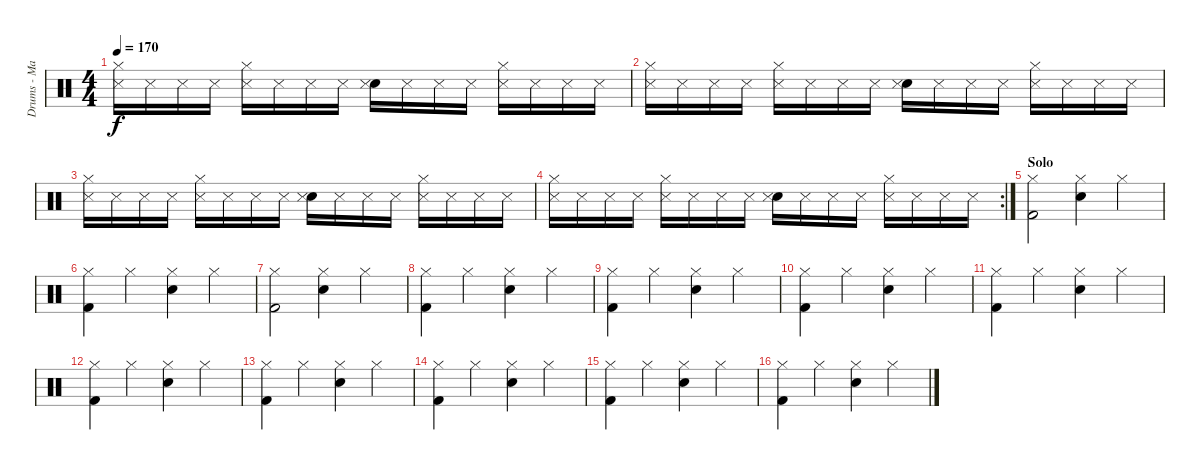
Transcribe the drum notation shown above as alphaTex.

\track ("Drums - Mattias Grahn" "Drums - Ma") {instrument percussion}
\staff {score}
\articulation defaults
\ts (4 4)
\tempo 170
\clef neutral
\ks c
("Hi-Hat (closed)" "Snare (side stick) 3").16{dy f} "Snare (side stick) 3".16 "Snare (side stick) 3".16 "Snare (side stick) 3".16 ("Hi-Hat (closed)" "Snare (side stick) 3").16 "Snare (side stick) 3".16 "Snare (side stick) 3".16 "Snare (side stick) 3".16 ("Electric Snare (hit)" "Snare (side stick) 3").16 "Snare (side stick) 3".16 "Snare (side stick) 3".16 "Snare (side stick) 3".16 ("Hi-Hat (closed)" "Snare (side stick) 3").16 "Snare (side stick) 3".16 "Snare (side stick) 3".16 "Snare (side stick) 3".16 |
("Hi-Hat (closed)" "Snare (side stick) 3").16 "Snare (side stick) 3".16 "Snare (side stick) 3".16 "Snare (side stick) 3".16 ("Hi-Hat (closed)" "Snare (side stick) 3").16 "Snare (side stick) 3".16 "Snare (side stick) 3".16 "Snare (side stick) 3".16 ("Electric Snare (hit)" "Snare (side stick) 3").16 "Snare (side stick) 3".16 "Snare (side stick) 3".16 "Snare (side stick) 3".16 ("Hi-Hat (closed)" "Snare (side stick) 3").16 "Snare (side stick) 3".16 "Snare (side stick) 3".16 "Snare (side stick) 3".16 |
("Hi-Hat (closed)" "Snare (side stick) 3").16 "Snare (side stick) 3".16 "Snare (side stick) 3".16 "Snare (side stick) 3".16 ("Hi-Hat (closed)" "Snare (side stick) 3").16 "Snare (side stick) 3".16 "Snare (side stick) 3".16 "Snare (side stick) 3".16 ("Electric Snare (hit)" "Snare (side stick) 3").16 "Snare (side stick) 3".16 "Snare (side stick) 3".16 "Snare (side stick) 3".16 ("Hi-Hat (closed)" "Snare (side stick) 3").16 "Snare (side stick) 3".16 "Snare (side stick) 3".16 "Snare (side stick) 3".16 |
\rc 2
("Hi-Hat (closed)" "Snare (side stick) 3").16 "Snare (side stick) 3".16 "Snare (side stick) 3".16 "Snare (side stick) 3".16 ("Hi-Hat (closed)" "Snare (side stick) 3").16 "Snare (side stick) 3".16 "Snare (side stick) 3".16 "Snare (side stick) 3".16 ("Electric Snare (hit)" "Snare (side stick) 3").16 "Snare (side stick) 3".16 "Snare (side stick) 3".16 "Snare (side stick) 3".16 ("Hi-Hat (closed)" "Snare (side stick) 3").16 "Snare (side stick) 3".16 "Snare (side stick) 3".16 "Snare (side stick) 3".16 |
\section ("" "Solo")
("Hi-Hat (closed)" "Kick (hit) 2").2 ("Hi-Hat (closed)" "Snare (hit) 2").4 "Hi-Hat (closed)".4 |
("Hi-Hat (closed)" "Kick (hit) 2").4 "Hi-Hat (closed)".4 ("Hi-Hat (closed)" "Snare (hit) 2").4 "Hi-Hat (closed)".4 |
("Hi-Hat (closed)" "Kick (hit) 2").2 ("Hi-Hat (closed)" "Snare (hit) 2").4 "Hi-Hat (closed)".4 |
("Hi-Hat (closed)" "Kick (hit) 2").4 "Hi-Hat (closed)".4 ("Hi-Hat (closed)" "Snare (hit) 2").4 "Hi-Hat (closed)".4 |
("Hi-Hat (closed)" "Kick (hit) 2").4 "Hi-Hat (closed)".4 ("Hi-Hat (closed)" "Snare (hit) 2").4 "Hi-Hat (closed)".4 |
("Hi-Hat (closed)" "Kick (hit) 2").4 "Hi-Hat (closed)".4 ("Hi-Hat (closed)" "Snare (hit) 2").4 "Hi-Hat (closed)".4 |
("Hi-Hat (closed)" "Kick (hit) 2").4 "Hi-Hat (closed)".4 ("Hi-Hat (closed)" "Snare (hit) 2").4 "Hi-Hat (closed)".4 |
("Hi-Hat (closed)" "Kick (hit) 2").4 "Hi-Hat (closed)".4 ("Hi-Hat (closed)" "Snare (hit) 2").4 "Hi-Hat (closed)".4 |
("Hi-Hat (closed)" "Kick (hit) 2").4 "Hi-Hat (closed)".4 ("Hi-Hat (closed)" "Snare (hit) 2").4 "Hi-Hat (closed)".4 |
("Hi-Hat (closed)" "Kick (hit) 2").4 "Hi-Hat (closed)".4 ("Hi-Hat (closed)" "Snare (hit) 2").4 "Hi-Hat (closed)".4 |
("Hi-Hat (closed)" "Kick (hit) 2").4 "Hi-Hat (closed)".4 ("Hi-Hat (closed)" "Snare (hit) 2").4 "Hi-Hat (closed)".4 |
("Hi-Hat (closed)" "Kick (hit) 2").4 "Hi-Hat (closed)".4 ("Hi-Hat (closed)" "Snare (hit) 2").4 "Hi-Hat (closed)".4
